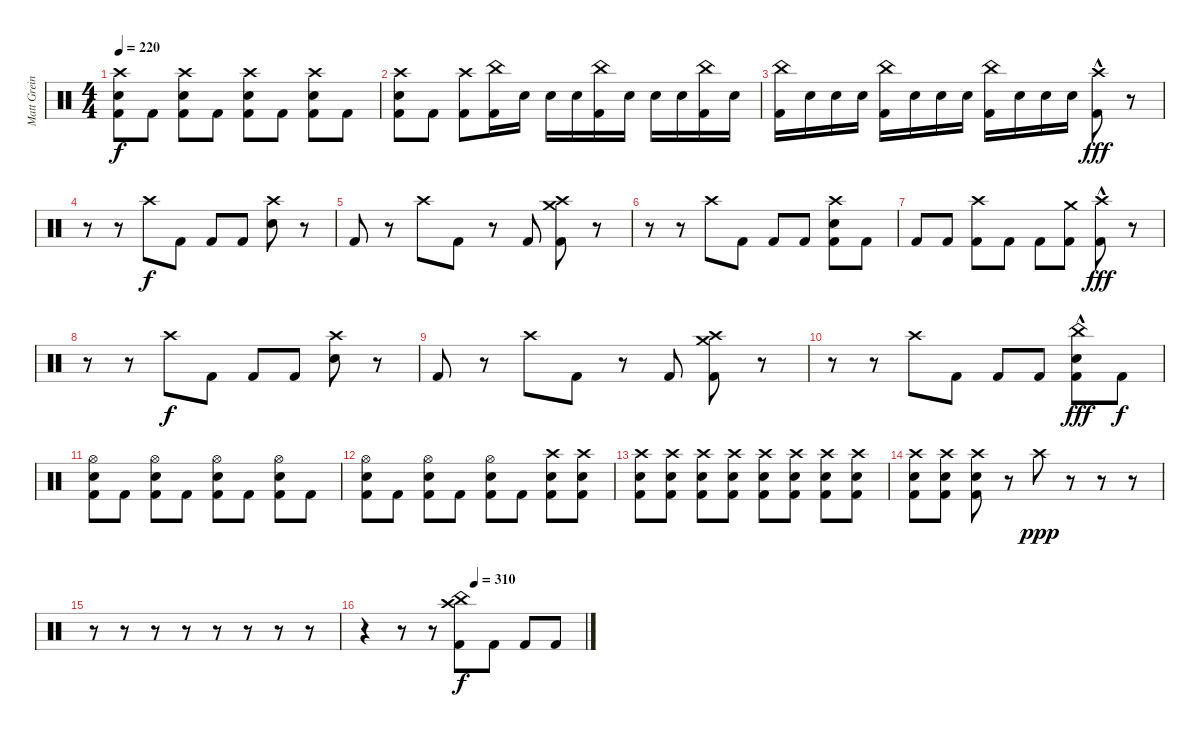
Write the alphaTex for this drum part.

\track ("Matt Greiner (Drums)" "Matt Grein") {instrument percussion}
\staff {score}
\articulation defaults
\ts (4 4)
\tempo 220
\clef neutral
\ks c
("Crash high (hit)" "Electric Snare (hit)" "Kick (hit) 2").8{dy f} "Kick (hit) 2".8 ("Crash high (hit)" "Electric Snare (hit)" "Kick (hit) 2").8 "Kick (hit) 2".8 ("Crash high (hit)" "Electric Snare (hit)" "Kick (hit) 2").8 "Kick (hit) 2".8 ("Crash high (hit)" "Electric Snare (hit)" "Kick (hit) 2").8 "Kick (hit) 2".8 |
("Crash high (hit)" "Electric Snare (hit)" "Kick (hit) 2").8 "Kick (hit) 2".8 ("Crash high (hit)" "Kick (hit) 2").8 ("China (hit)" "Kick (hit) 2").16 "Electric Snare (hit)".16 "Electric Snare (hit)".16 "Electric Snare (hit)".16 ("China (hit)" "Kick (hit) 2").16 "Electric Snare (hit)".16 "Electric Snare (hit)".16 "Electric Snare (hit)".16 ("China (hit)" "Kick (hit) 2").16 "Electric Snare (hit)".16 |
("China (hit)" "Kick (hit) 2").16 "Electric Snare (hit)".16 "Electric Snare (hit)".16 "Electric Snare (hit)".16 ("China (hit)" "Kick (hit) 2").16 "Electric Snare (hit)".16 "Electric Snare (hit)".16 "Electric Snare (hit)".16 ("China (hit)" "Kick (hit) 2").16 "Electric Snare (hit)".16 "Electric Snare (hit)".16 "Electric Snare (hit)".16 ("Crash high (hit)"{hac} "Kick (hit) 2").8{dy fff} r.8 |
r.8 r.8 "Crash high (hit)".8{dy f} "Kick (hit) 2".8 "Kick (hit) 2".8 "Kick (hit) 2".8 ("Crash high (hit)" "Electric Snare (hit)").8 r.8 |
"Kick (hit) 2".8 r.8 "Crash high (hit)".8 "Kick (hit) 2".8 r.8 "Kick (hit) 2".8 ("Crash medium (hit)" "Crash high (hit)" "Kick (hit) 2").8 r.8 |
r.8 r.8 "Crash high (hit)".8 "Kick (hit) 2".8 "Kick (hit) 2".8 "Kick (hit) 2".8 ("Crash high (hit)" "Electric Snare (hit)" "Kick (hit) 2").8 "Kick (hit) 2".8 |
"Kick (hit) 2".8 "Kick (hit) 2".8 ("Crash high (hit)" "Kick (hit) 2").8 "Kick (hit) 2".8 "Kick (hit) 2".8 ("Crash medium (hit)" "Kick (hit) 2").8 ("Crash high (hit)"{hac} "Kick (hit) 2").8{dy fff} r.8 |
r.8 r.8 "Crash high (hit)".8{dy f} "Kick (hit) 2".8 "Kick (hit) 2".8 "Kick (hit) 2".8 ("Crash high (hit)" "Electric Snare (hit)").8 r.8 |
"Kick (hit) 2".8 r.8 "Crash high (hit)".8 "Kick (hit) 2".8 r.8 "Kick (hit) 2".8 ("Crash medium (hit)" "Crash high (hit)" "Kick (hit) 2").8 r.8 |
r.8 r.8 "Crash high (hit)".8 "Kick (hit) 2".8 "Kick (hit) 2".8 "Kick (hit) 2".8 ("China (hit)"{hac} "Electric Snare (hit)" "Kick (hit) 2").8{dy fff} "Kick (hit) 2".8{dy f} |
("Hi-Hat (open)" "Electric Snare (hit)" "Kick (hit) 2").8 "Kick (hit) 2".8 ("Hi-Hat (open)" "Electric Snare (hit)" "Kick (hit) 2").8 "Kick (hit) 2".8 ("Hi-Hat (open)" "Electric Snare (hit)" "Kick (hit) 2").8 "Kick (hit) 2".8 ("Hi-Hat (open)" "Electric Snare (hit)" "Kick (hit) 2").8 "Kick (hit) 2".8 |
("Hi-Hat (open)" "Electric Snare (hit)" "Kick (hit) 2").8 "Kick (hit) 2".8 ("Hi-Hat (open)" "Electric Snare (hit)" "Kick (hit) 2").8 "Kick (hit) 2".8 ("Hi-Hat (open)" "Electric Snare (hit)" "Kick (hit) 2").8 "Kick (hit) 2".8 ("Crash high (hit)" "Electric Snare (hit)" "Kick (hit) 2").8 ("Crash high (hit)" "Electric Snare (hit)" "Kick (hit) 2").8 |
("Crash high (hit)" "Electric Snare (hit)" "Kick (hit) 2").8 ("Crash high (hit)" "Electric Snare (hit)" "Kick (hit) 2").8 ("Crash high (hit)" "Electric Snare (hit)" "Kick (hit) 2").8 ("Crash high (hit)" "Electric Snare (hit)" "Kick (hit) 2").8 ("Crash high (hit)" "Electric Snare (hit)" "Kick (hit) 2").8 ("Crash high (hit)" "Electric Snare (hit)" "Kick (hit) 2").8 ("Crash high (hit)" "Electric Snare (hit)" "Kick (hit) 2").8 ("Crash high (hit)" "Electric Snare (hit)" "Kick (hit) 2").8 |
("Crash high (hit)" "Electric Snare (hit)" "Kick (hit) 2").8 ("Crash high (hit)" "Electric Snare (hit)" "Kick (hit) 2").8 ("Crash high (hit)" "Electric Snare (hit)" "Kick (hit) 2").8 r.8 "Crash high (hit)".8{dy ppp} r.8 r.8 r.8 |
r.8 r.8 r.8 r.8 r.8 r.8 r.8 r.8 |
\tempo (310 0.5)
r.4 r.8 r.8 ("Crash high (hit)" "China (hit)" "Kick (hit) 2").8{dy f} "Kick (hit) 2".8 "Kick (hit) 2".8 "Kick (hit) 2".8
